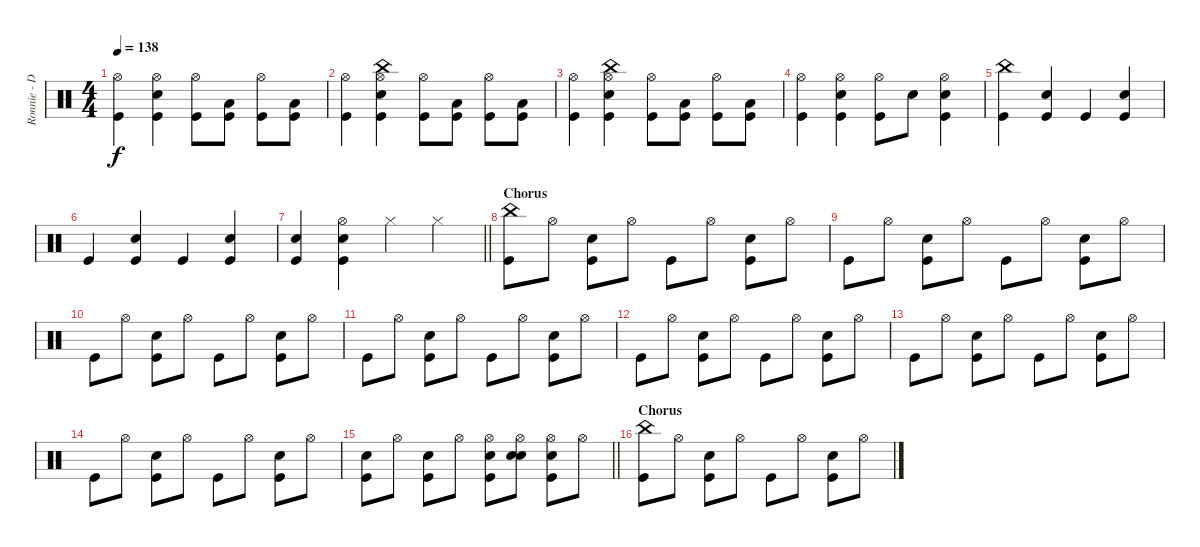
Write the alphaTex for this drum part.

\track ("Ronnie - Drums" "Ronnie - D") {instrument percussion}
\staff {score}
\articulation defaults
\ts (4 4)
\tempo 138
\clef neutral
\ks c
("Hi-Hat (open)" "Kick (hit)").4{dy f} ("Hi-Hat (open)" "Snare (hit) 2" "Kick (hit)").4 ("Hi-Hat (open)" "Kick (hit)").8 ("Low Tom (hit)" "Kick (hit)").8 ("Hi-Hat (open)" "Kick (hit)").8 ("Low Tom (hit)" "Kick (hit)").8 |
("Hi-Hat (open)" "Kick (hit)").4 ("China (hit)" "Hi-Hat (open)" "Snare (hit) 2" "Kick (hit)").4 ("Hi-Hat (open)" "Kick (hit)").8 ("Low Tom (hit)" "Kick (hit)").8 ("Hi-Hat (open)" "Kick (hit)").8 ("Low Tom (hit)" "Kick (hit)").8 |
("Hi-Hat (open)" "Kick (hit)").4 ("China (hit)" "Hi-Hat (open)" "Snare (hit) 2" "Kick (hit)").4 ("Hi-Hat (open)" "Kick (hit)").8 ("Low Tom (hit)" "Kick (hit)").8 ("Hi-Hat (open)" "Kick (hit)").8 ("Low Tom (hit)" "Kick (hit)").8 |
("Hi-Hat (open)" "Kick (hit)").4 ("Hi-Hat (open)" "Snare (hit) 2" "Kick (hit)").4 ("Hi-Hat (open)" "Kick (hit)").8 "Snare (hit) 2".8 ("Hi-Hat (open)" "Snare (hit) 2" "Kick (hit)").4 |
("China (hit)" "Kick (hit)").4 ("Snare (hit) 2" "Kick (hit)").4 "Kick (hit)".4 ("Snare (hit) 2" "Kick (hit)").4 |
"Kick (hit)".4 ("Snare (hit) 2" "Kick (hit)").4 "Kick (hit)".4 ("Snare (hit) 2" "Kick (hit)").4 |
\barLineRight lightlight
("Snare (hit) 2" "Kick (hit)").4 ("Hi-Hat (open)" "Snare (hit) 2" "Kick (hit)").4 "Hi-Hat (closed)".4 "Hi-Hat (closed)".4 |
\section ("" "Chorus")
("China (hit)" "Kick (hit)").8 "Hi-Hat (open)".8 ("Snare (hit) 2" "Kick (hit)").8 "Hi-Hat (open)".8 "Kick (hit)".8 "Hi-Hat (open)".8 ("Snare (hit) 2" "Kick (hit)").8 "Hi-Hat (open)".8 |
"Kick (hit)".8 "Hi-Hat (open)".8 ("Snare (hit) 2" "Kick (hit)").8 "Hi-Hat (open)".8 "Kick (hit)".8 "Hi-Hat (open)".8 ("Snare (hit) 2" "Kick (hit)").8 "Hi-Hat (open)".8 |
"Kick (hit)".8 "Hi-Hat (open)".8 ("Snare (hit) 2" "Kick (hit)").8 "Hi-Hat (open)".8 "Kick (hit)".8 "Hi-Hat (open)".8 ("Snare (hit) 2" "Kick (hit)").8 "Hi-Hat (open)".8 |
"Kick (hit)".8 "Hi-Hat (open)".8 ("Snare (hit) 2" "Kick (hit)").8 "Hi-Hat (open)".8 "Kick (hit)".8 "Hi-Hat (open)".8 ("Snare (hit) 2" "Kick (hit)").8 "Hi-Hat (open)".8 |
"Kick (hit)".8 "Hi-Hat (open)".8 ("Snare (hit) 2" "Kick (hit)").8 "Hi-Hat (open)".8 "Kick (hit)".8 "Hi-Hat (open)".8 ("Snare (hit) 2" "Kick (hit)").8 "Hi-Hat (open)".8 |
"Kick (hit)".8 "Hi-Hat (open)".8 ("Snare (hit) 2" "Kick (hit)").8 "Hi-Hat (open)".8 "Kick (hit)".8 "Hi-Hat (open)".8 ("Snare (hit) 2" "Kick (hit)").8 "Hi-Hat (open)".8 |
"Kick (hit)".8 "Hi-Hat (open)".8 ("Snare (hit) 2" "Kick (hit)").8 "Hi-Hat (open)".8 "Kick (hit)".8 "Hi-Hat (open)".8 ("Snare (hit) 2" "Kick (hit)").8 "Hi-Hat (open)".8 |
\barLineRight lightlight
("Snare (hit) 2" "Kick (hit)").8 "Hi-Hat (open)".8 ("Snare (hit) 2" "Kick (hit)").8 "Hi-Hat (open)".8 ("Hi-Hat (open)" "Snare (hit) 2" "Kick (hit)").8 ("Hi-Hat (open)" "Snare (hit) 2" "Snare (hit) 2").8 ("Hi-Hat (open)" "Snare (hit) 2" "Kick (hit)").8 "Hi-Hat (open)".8 |
\section ("" "Chorus")
("China (hit)" "Kick (hit)").8 "Hi-Hat (open)".8 ("Snare (hit) 2" "Kick (hit)").8 "Hi-Hat (open)".8 "Kick (hit)".8 "Hi-Hat (open)".8 ("Snare (hit) 2" "Kick (hit)").8 "Hi-Hat (open)".8
